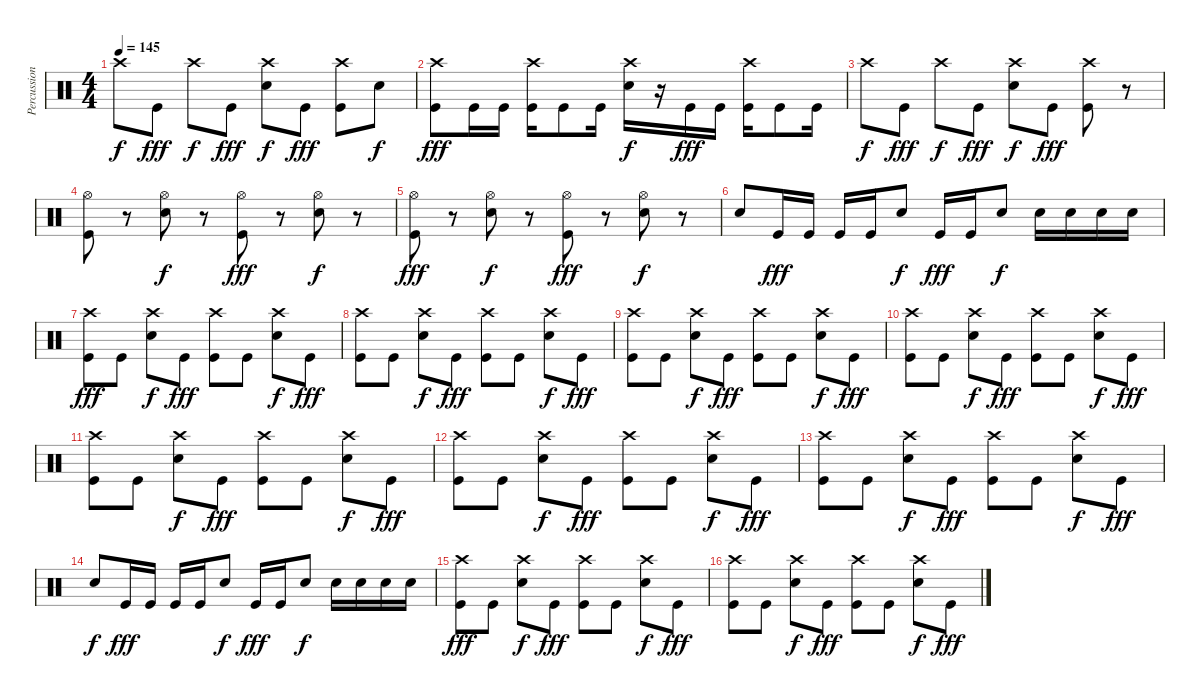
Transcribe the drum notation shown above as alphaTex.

\track ("Percussion" "Percussion") {instrument percussion}
\staff {score}
\articulation defaults
\ts (4 4)
\tempo 145
\clef neutral
\ks c "Crash high (hit)".8{dy f} "Kick (hit)".8{dy fff} "Crash high (hit)".8{dy f} "Kick (hit)".8{dy fff}
("Crash high (hit)" "Electric Snare (hit)").8{dy f} "Kick (hit)".8{dy fff} ("Crash high (hit)" "Kick (hit)").8 "Electric Snare (hit)".8{dy f} |
("Crash high (hit)" "Kick (hit)").8{dy fff} "Kick (hit)".16 "Kick (hit)".16 ("Crash high (hit)" "Kick (hit)").16 "Kick (hit)".8 "Kick (hit)".16 ("Crash high (hit)" "Electric Snare (hit)").16{dy f} r.16 "Kick (hit)".16{dy fff} "Kick (hit)".16 ("Crash high (hit)" "Kick (hit)").16 "Kick (hit)".8 "Kick (hit)".16 |
"Crash high (hit)".8{dy f} "Kick (hit)".8{dy fff} "Crash high (hit)".8{dy f} "Kick (hit)".8{dy fff} ("Crash high (hit)" "Electric Snare (hit)").8{dy f} "Kick (hit)".8{dy fff} ("Crash high (hit)" "Kick (hit)").8 r.8 |
("Hi-Hat (open)" "Kick (hit)").8 r.8 ("Hi-Hat (open)" "Electric Snare (hit)").8{dy f} r.8 ("Hi-Hat (open)" "Kick (hit)").8{dy fff} r.8 ("Hi-Hat (open)" "Electric Snare (hit)").8{dy f} r.8 |
("Hi-Hat (open)" "Kick (hit)").8{dy fff} r.8 ("Hi-Hat (open)" "Electric Snare (hit)").8{dy f} r.8 ("Hi-Hat (open)" "Kick (hit)").8{dy fff} r.8 ("Hi-Hat (open)" "Electric Snare (hit)").8{dy f} r.8 |
"Electric Snare (hit)".8 "Kick (hit)".16{dy fff} "Kick (hit)".16 "Kick (hit)".16 "Kick (hit)".16 "Electric Snare (hit)".8{dy f} "Kick (hit)".16{dy fff} "Kick (hit)".16 "Electric Snare (hit)".8{dy f} "Electric Snare (hit)".16 "Electric Snare (hit)".16 "Electric Snare (hit)".16 "Electric Snare (hit)".16 |
("Crash high (hit)" "Kick (hit)").8{dy fff} "Kick (hit)".8 ("Crash high (hit)" "Electric Snare (hit)").8{dy f} "Kick (hit)".8{dy fff} ("Crash high (hit)" "Kick (hit)").8 "Kick (hit)".8 ("Crash high (hit)" "Electric Snare (hit)").8{dy f} "Kick (hit)".8{dy fff} |
("Crash high (hit)" "Kick (hit)").8 "Kick (hit)".8 ("Crash high (hit)" "Electric Snare (hit)").8{dy f} "Kick (hit)".8{dy fff} ("Crash high (hit)" "Kick (hit)").8 "Kick (hit)".8 ("Crash high (hit)" "Electric Snare (hit)").8{dy f} "Kick (hit)".8{dy fff} |
("Crash high (hit)" "Kick (hit)").8 "Kick (hit)".8 ("Crash high (hit)" "Electric Snare (hit)").8{dy f} "Kick (hit)".8{dy fff} ("Crash high (hit)" "Kick (hit)").8 "Kick (hit)".8 ("Crash high (hit)" "Electric Snare (hit)").8{dy f} "Kick (hit)".8{dy fff} |
("Crash high (hit)" "Kick (hit)").8 "Kick (hit)".8 ("Crash high (hit)" "Electric Snare (hit)").8{dy f} "Kick (hit)".8{dy fff} ("Crash high (hit)" "Kick (hit)").8 "Kick (hit)".8 ("Crash high (hit)" "Electric Snare (hit)").8{dy f} "Kick (hit)".8{dy fff} |
("Crash high (hit)" "Kick (hit)").8 "Kick (hit)".8 ("Crash high (hit)" "Electric Snare (hit)").8{dy f} "Kick (hit)".8{dy fff} ("Crash high (hit)" "Kick (hit)").8 "Kick (hit)".8 ("Crash high (hit)" "Electric Snare (hit)").8{dy f} "Kick (hit)".8{dy fff} |
("Crash high (hit)" "Kick (hit)").8 "Kick (hit)".8 ("Crash high (hit)" "Electric Snare (hit)").8{dy f} "Kick (hit)".8{dy fff} ("Crash high (hit)" "Kick (hit)").8 "Kick (hit)".8 ("Crash high (hit)" "Electric Snare (hit)").8{dy f} "Kick (hit)".8{dy fff} |
("Crash high (hit)" "Kick (hit)").8 "Kick (hit)".8 ("Crash high (hit)" "Electric Snare (hit)").8{dy f} "Kick (hit)".8{dy fff} ("Crash high (hit)" "Kick (hit)").8 "Kick (hit)".8 ("Crash high (hit)" "Electric Snare (hit)").8{dy f} "Kick (hit)".8{dy fff} |
"Electric Snare (hit)".8{dy f} "Kick (hit)".16{dy fff} "Kick (hit)".16 "Kick (hit)".16 "Kick (hit)".16 "Electric Snare (hit)".8{dy f} "Kick (hit)".16{dy fff} "Kick (hit)".16 "Electric Snare (hit)".8{dy f} "Electric Snare (hit)".16 "Electric Snare (hit)".16 "Electric Snare (hit)".16 "Electric Snare (hit)".16 |
("Crash high (hit)" "Kick (hit)").8{dy fff} "Kick (hit)".8 ("Crash high (hit)" "Electric Snare (hit)").8{dy f} "Kick (hit)".8{dy fff} ("Crash high (hit)" "Kick (hit)").8 "Kick (hit)".8 ("Crash high (hit)" "Electric Snare (hit)").8{dy f} "Kick (hit)".8{dy fff} |
("Crash high (hit)" "Kick (hit)").8 "Kick (hit)".8 ("Crash high (hit)" "Electric Snare (hit)").8{dy f} "Kick (hit)".8{dy fff} ("Crash high (hit)" "Kick (hit)").8 "Kick (hit)".8 ("Crash high (hit)" "Electric Snare (hit)").8{dy f} "Kick (hit)".8{dy fff}
